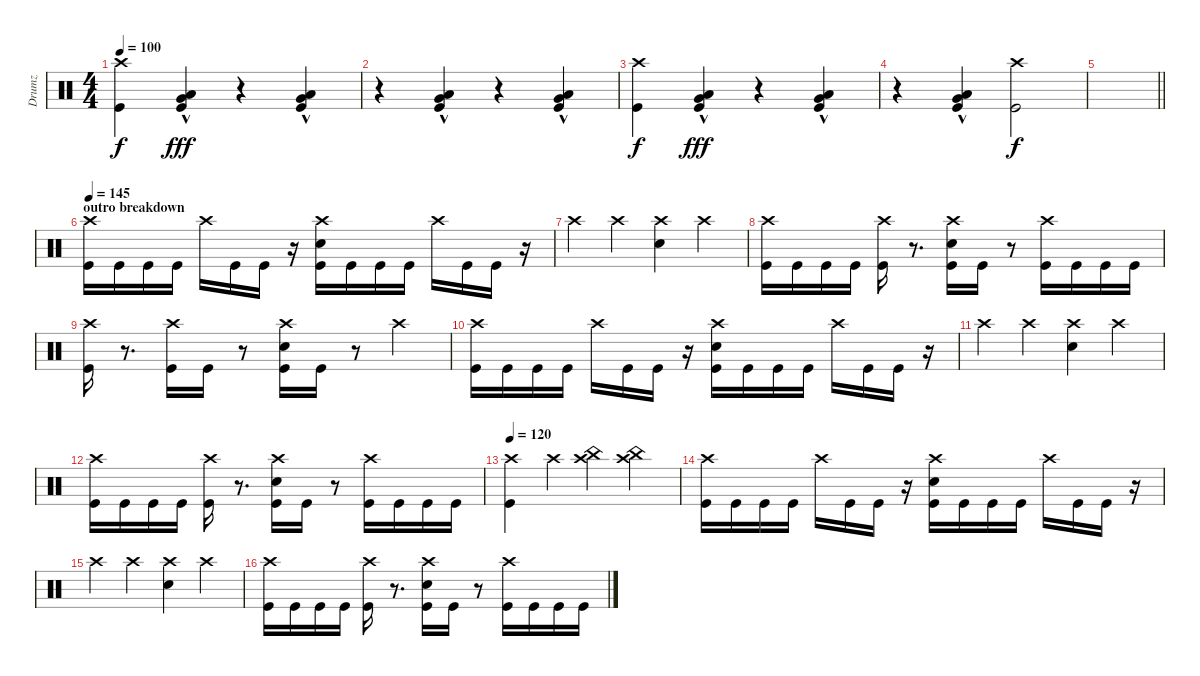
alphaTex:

\track ("Drumz" "Drumz") {instrument percussion}
\staff {score}
\articulation defaults
\ts (4 4)
\tempo 100
\clef neutral
\ks c
("Crash high (hit)" "Kick (hit)").4{dy f} ("Low Tom (hit)"{hac} "Very Low Tom (hit)"{hac} "Kick (hit)").4{dy fff} r.4 ("Low Tom (hit)"{hac} "Very Low Tom (hit)"{hac} "Kick (hit)").4 |
r.4 ("Low Tom (hit)"{hac} "Very Low Tom (hit)"{hac} "Kick (hit)").4 r.4 ("Low Tom (hit)"{hac} "Very Low Tom (hit)"{hac} "Kick (hit)").4 |
("Crash high (hit)" "Kick (hit)").4{dy f} ("Low Tom (hit)"{hac} "Very Low Tom (hit)"{hac} "Kick (hit)").4{dy fff} r.4 ("Low Tom (hit)"{hac} "Very Low Tom (hit)"{hac} "Kick (hit)").4 |
r.4 ("Low Tom (hit)"{hac} "Very Low Tom (hit)"{hac} "Kick (hit)").4 ("Crash high (hit)" "Kick (hit)").2{dy f} |
\barLineRight lightlight
|
\section ("" "outro breakdown")
\tempo 145
("Crash high (hit)" "Kick (hit)").16 "Kick (hit)".16 "Kick (hit)".16 "Kick (hit)".16 "Crash high (hit)".16 "Kick (hit)".16 "Kick (hit)".16 r.16 ("Crash high (hit)" "Electric Snare (hit)" "Kick (hit)").16 "Kick (hit)".16 "Kick (hit)".16 "Kick (hit)".16 "Crash high (hit)".16 "Kick (hit)".16 "Kick (hit)".16 r.16 |
"Crash high (hit)".4 "Crash high (hit)".4 ("Crash high (hit)" "Electric Snare (hit)").4 "Crash high (hit)".4 |
("Crash high (hit)" "Kick (hit)").16 "Kick (hit)".16 "Kick (hit)".16 "Kick (hit)".16 ("Crash high (hit)" "Kick (hit)").16 r.8{d} ("Crash high (hit)" "Electric Snare (hit)" "Kick (hit)").16 "Kick (hit)".16 r.8 ("Crash high (hit)" "Kick (hit)").16 "Kick (hit)".16 "Kick (hit)".16 "Kick (hit)".16 |
("Crash high (hit)" "Kick (hit)").16 r.8{d} ("Crash high (hit)" "Kick (hit)").16 "Kick (hit)".16 r.8 ("Crash high (hit)" "Electric Snare (hit)" "Kick (hit)").16 "Kick (hit)".16 r.8 "Crash high (hit)".4 |
("Crash high (hit)" "Kick (hit)").16 "Kick (hit)".16 "Kick (hit)".16 "Kick (hit)".16 "Crash high (hit)".16 "Kick (hit)".16 "Kick (hit)".16 r.16 ("Crash high (hit)" "Electric Snare (hit)" "Kick (hit)").16 "Kick (hit)".16 "Kick (hit)".16 "Kick (hit)".16 "Crash high (hit)".16 "Kick (hit)".16 "Kick (hit)".16 r.16 |
"Crash high (hit)".4 "Crash high (hit)".4 ("Crash high (hit)" "Electric Snare (hit)").4 "Crash high (hit)".4 |
("Crash high (hit)" "Kick (hit)").16 "Kick (hit)".16 "Kick (hit)".16 "Kick (hit)".16 ("Crash high (hit)" "Kick (hit)").16 r.8{d} ("Crash high (hit)" "Electric Snare (hit)" "Kick (hit)").16 "Kick (hit)".16 r.8 ("Crash high (hit)" "Kick (hit)").16 "Kick (hit)".16 "Kick (hit)".16 "Kick (hit)".16 |
\tempo 120
("Crash high (hit)" "Kick (hit)").4 "Crash high (hit)".4 ("Crash high (hit)" "China (hit)").4 ("Crash high (hit)" "China (hit)").4 |
("Crash high (hit)" "Kick (hit)").16 "Kick (hit)".16 "Kick (hit)".16 "Kick (hit)".16 "Crash high (hit)".16 "Kick (hit)".16 "Kick (hit)".16 r.16 ("Crash high (hit)" "Electric Snare (hit)" "Kick (hit)").16 "Kick (hit)".16 "Kick (hit)".16 "Kick (hit)".16 "Crash high (hit)".16 "Kick (hit)".16 "Kick (hit)".16 r.16 |
"Crash high (hit)".4 "Crash high (hit)".4 ("Crash high (hit)" "Electric Snare (hit)").4 "Crash high (hit)".4 |
("Crash high (hit)" "Kick (hit)").16 "Kick (hit)".16 "Kick (hit)".16 "Kick (hit)".16 ("Crash high (hit)" "Kick (hit)").16 r.8{d} ("Crash high (hit)" "Electric Snare (hit)" "Kick (hit)").16 "Kick (hit)".16 r.8 ("Crash high (hit)" "Kick (hit)").16 "Kick (hit)".16 "Kick (hit)".16 "Kick (hit)".16
